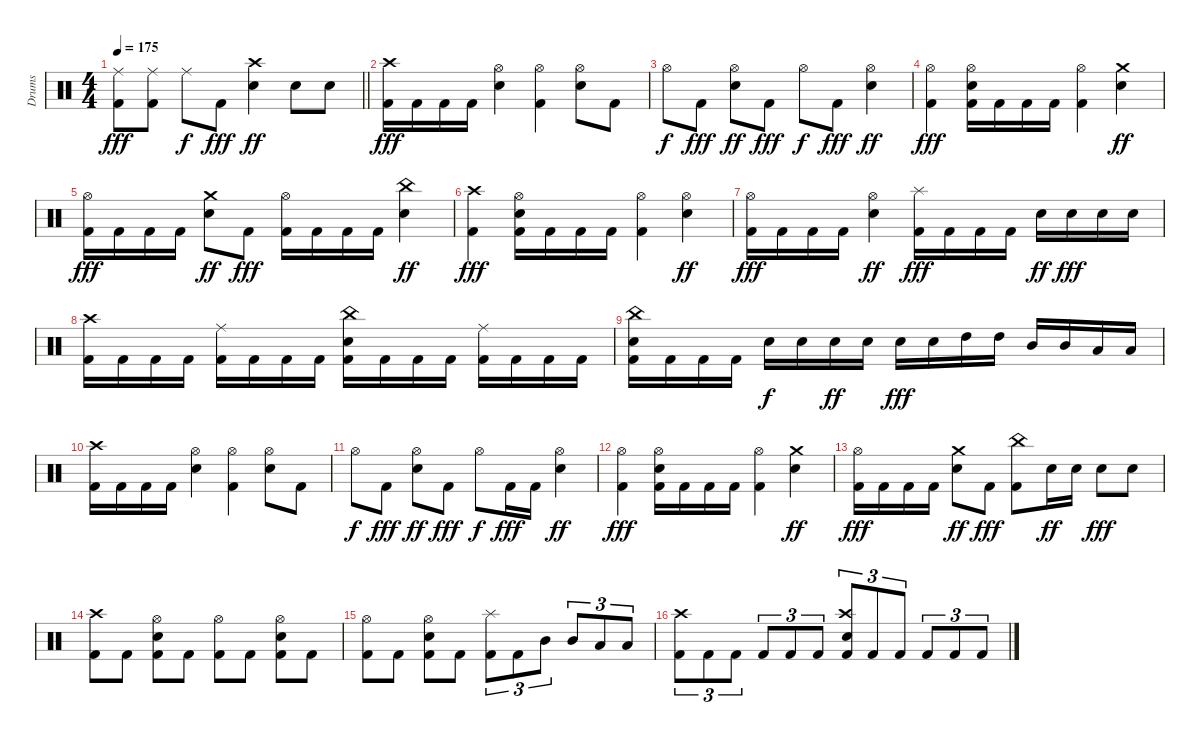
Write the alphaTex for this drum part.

\track ("Drums" "Drums") {instrument percussion}
\staff {score}
\articulation defaults
\ts (4 4)
\tempo 175
\clef neutral
\barLineRight lightlight
\ks c
("Ride (middle)" "Kick (hit) 2").8{dy fff} ("Ride (middle)" "Kick (hit) 2").8 "Ride (middle)".8{dy f} "Kick (hit) 2".8{dy fff} ("Crash high (hit)" "Snare (hit) 2").4{dy ff} "Snare (hit) 2".8 "Snare (hit) 2".8 |
("Crash high (hit)" "Kick (hit) 2").16{dy fff} "Kick (hit) 2".16 "Kick (hit) 2".16 "Kick (hit) 2".16 ("Hi-Hat (open)" "Snare (hit) 2").4 ("Hi-Hat (open)" "Kick (hit) 2").4 ("Hi-Hat (open)" "Snare (hit) 2").8 "Kick (hit) 2".8 |
"Hi-Hat (open)".8{dy f} "Kick (hit) 2".8{dy fff} ("Hi-Hat (open)" "Snare (hit) 2").8{dy ff} "Kick (hit) 2".8{dy fff} "Hi-Hat (open)".8{dy f} "Kick (hit) 2".8{dy fff} ("Hi-Hat (open)" "Snare (hit) 2").4{dy ff} |
("Hi-Hat (open)" "Kick (hit) 2").4{dy fff} ("Hi-Hat (open)" "Snare (hit) 2" "Kick (hit) 2").16 "Kick (hit) 2".16 "Kick (hit) 2".16 "Kick (hit) 2".16 ("Hi-Hat (open)" "Kick (hit) 2").4 ("Crash medium (hit)" "Snare (hit) 2").4{dy ff} |
("Hi-Hat (open)" "Kick (hit) 2").16{dy fff} "Kick (hit) 2".16 "Kick (hit) 2".16 "Kick (hit) 2".16 ("Crash medium (hit)" "Snare (hit) 2").8{dy ff} "Kick (hit) 2".8{dy fff} ("Hi-Hat (open)" "Kick (hit) 2").16 "Kick (hit) 2".16 "Kick (hit) 2".16 "Kick (hit) 2".16 ("China (hit)" "Snare (hit) 2").4{dy ff} |
("Crash high (hit)" "Kick (hit) 2").4{dy fff} ("Hi-Hat (open)" "Snare (hit) 2" "Kick (hit) 2").16 "Kick (hit) 2".16 "Kick (hit) 2".16 "Kick (hit) 2".16 ("Hi-Hat (open)" "Kick (hit) 2").4 ("Hi-Hat (open)" "Snare (hit) 2").4{dy ff} |
("Hi-Hat (open)" "Kick (hit) 2").16{dy fff} "Kick (hit) 2".16 "Kick (hit) 2".16 "Kick (hit) 2".16 ("Hi-Hat (open)" "Snare (hit) 2").4{dy ff} ("Splash (hit)" "Kick (hit) 2").16{dy fff} "Kick (hit) 2".16 "Kick (hit) 2".16 "Kick (hit) 2".16 "Snare (hit) 2".16{dy ff} "Snare (hit) 2".16{dy fff} "Snare (hit) 2".16 "Snare (hit) 2".16 |
("Crash high (hit)" "Kick (hit) 2").16 "Kick (hit) 2".16 "Kick (hit) 2".16 "Kick (hit) 2".16 ("Ride (middle)" "Kick (hit) 2").16 "Kick (hit) 2".16 "Kick (hit) 2".16 "Kick (hit) 2".16 ("China (hit)" "Snare (hit) 2" "Kick (hit) 2").16 "Kick (hit) 2".16 "Kick (hit) 2".16 "Kick (hit) 2".16 ("Ride (middle)" "Kick (hit) 2").16 "Kick (hit) 2".16 "Kick (hit) 2".16 "Kick (hit) 2".16 |
("China (hit)" "Snare (hit) 2" "Kick (hit) 2").16 "Kick (hit) 2".16 "Kick (hit) 2".16 "Kick (hit) 2".16 "Snare (hit) 2".16{dy f} "Snare (hit) 2".16 "Snare (hit) 2".16{dy ff} "Snare (hit) 2".16 "Snare (hit) 2".16{dy fff} "Snare (hit) 2".16 "High Tom (hit)".16 "High Tom (hit)".16 "Mid Tom (hit)".16 "Mid Tom (hit)".16 "Low Tom (hit)".16 "Low Tom (hit)".16 |
("Crash high (hit)" "Kick (hit) 2").16 "Kick (hit) 2".16 "Kick (hit) 2".16 "Kick (hit) 2".16 ("Hi-Hat (open)" "Snare (hit) 2").4 ("Hi-Hat (open)" "Kick (hit) 2").4 ("Hi-Hat (open)" "Snare (hit) 2").8 "Kick (hit) 2".8 |
"Hi-Hat (open)".8{dy f} "Kick (hit) 2".8{dy fff} ("Hi-Hat (open)" "Snare (hit) 2").8{dy ff} "Kick (hit) 2".8{dy fff} "Hi-Hat (open)".8{dy f} "Kick (hit) 2".16{dy fff} "Kick (hit) 2".16 ("Hi-Hat (open)" "Snare (hit) 2").4{dy ff} |
("Hi-Hat (open)" "Kick (hit) 2").4{dy fff} ("Hi-Hat (open)" "Snare (hit) 2" "Kick (hit) 2").16 "Kick (hit) 2".16 "Kick (hit) 2".16 "Kick (hit) 2".16 ("Hi-Hat (open)" "Kick (hit) 2").4 ("Crash medium (hit)" "Snare (hit) 2").4{dy ff} |
("Hi-Hat (open)" "Kick (hit) 2").16{dy fff} "Kick (hit) 2".16 "Kick (hit) 2".16 "Kick (hit) 2".16 ("Crash medium (hit)" "Snare (hit) 2").8{dy ff} "Kick (hit) 2".8{dy fff} ("China (hit)" "Kick (hit) 2").8 "Snare (hit) 2".16{dy ff} "Snare (hit) 2".16 "Snare (hit) 2".8{dy fff} "Snare (hit) 2".8 |
("Crash high (hit)" "Kick (hit) 2").8 "Kick (hit) 2".8 ("Hi-Hat (open)" "Snare (hit) 2" "Kick (hit) 2").8 "Kick (hit) 2".8 ("Hi-Hat (open)" "Kick (hit) 2").8 "Kick (hit) 2".8 ("Hi-Hat (open)" "Snare (hit) 2" "Kick (hit) 2").8 "Kick (hit) 2".8 |
("Hi-Hat (open)" "Kick (hit) 2").8 "Kick (hit) 2".8 ("Hi-Hat (open)" "Snare (hit) 2" "Kick (hit) 2").8 "Kick (hit) 2".8 ("Splash (hit)" "Kick (hit) 2").8{tu (3 2)} "Kick (hit) 2".8{tu (3 2)} "Mid Tom (hit)".8{tu (3 2)} "Mid Tom (hit)".8{tu (3 2)} "Low Tom (hit)".8{tu (3 2)} "Low Tom (hit)".8{tu (3 2)} |
("Crash high (hit)" "Kick (hit) 2").8{tu (3 2)} "Kick (hit) 2".8{tu (3 2)} "Kick (hit) 2".8{tu (3 2)} "Kick (hit) 2".8{tu (3 2)} "Kick (hit) 2".8{tu (3 2)} "Kick (hit) 2".8{tu (3 2)} ("Crash high (hit)" "Snare (hit) 2" "Kick (hit) 2").8{tu (3 2)} "Kick (hit) 2".8{tu (3 2)} "Kick (hit) 2".8{tu (3 2)} "Kick (hit) 2".8{tu (3 2)} "Kick (hit) 2".8{tu (3 2)} "Kick (hit) 2".8{tu (3 2)}
